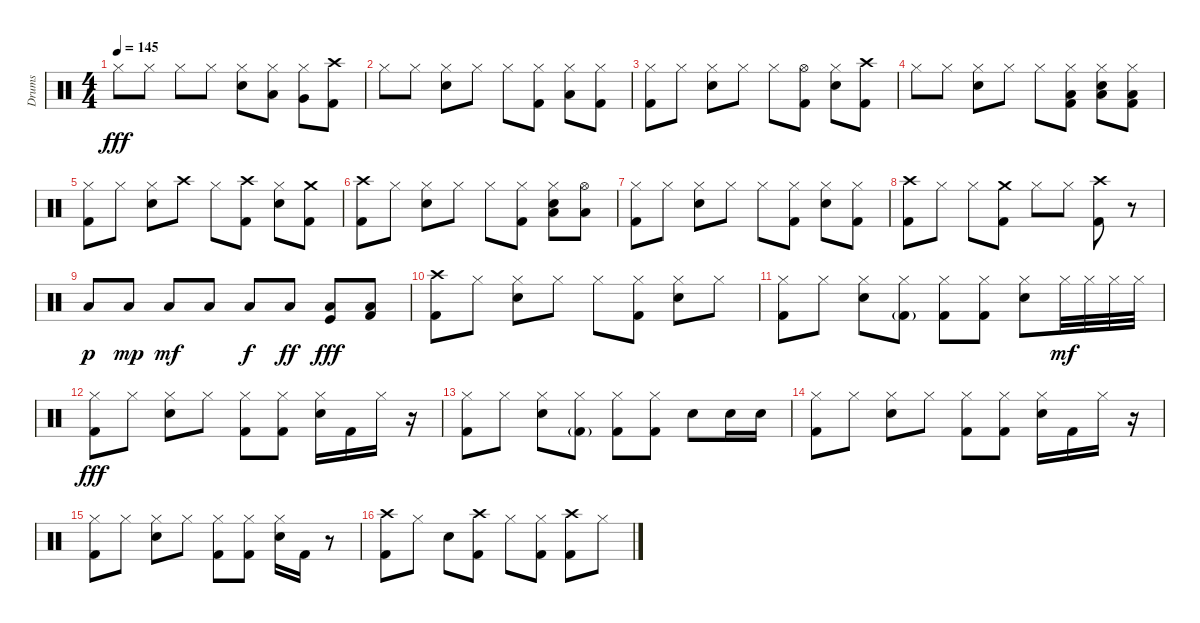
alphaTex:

\track ("Drums" "Drums") {instrument percussion}
\staff {score}
\articulation defaults
\ts (4 4)
\tempo 145
\clef neutral
\ks c "Hi-Hat (closed)".8{dy fff} "Hi-Hat (closed)".8 "Hi-Hat (closed)".8 "Hi-Hat (closed)".8
("Hi-Hat (closed)" "Snare (hit) 2").8 ("Hi-Hat (closed)" "Low Tom (hit)").8 ("Hi-Hat (closed)" "Very Low Tom (hit)").8 ("Crash high (hit)" "Kick (hit) 2").8 |
"Hi-Hat (closed)".8 "Hi-Hat (closed)".8 ("Hi-Hat (closed)" "Snare (hit) 2").8 "Hi-Hat (closed)".8 "Hi-Hat (closed)".8 ("Hi-Hat (closed)" "Kick (hit) 2").8 ("Hi-Hat (closed)" "Low Tom (hit)").8 ("Hi-Hat (closed)" "Kick (hit) 2").8 |
("Hi-Hat (closed)" "Kick (hit) 2").8 "Hi-Hat (closed)".8 ("Hi-Hat (closed)" "Snare (hit) 2").8 "Hi-Hat (closed)".8 "Hi-Hat (closed)".8 ("Hi-Hat (open)" "Kick (hit) 2").8 ("Hi-Hat (closed)" "Snare (hit) 2").8 ("Crash high (hit)" "Kick (hit) 2").8 |
"Hi-Hat (closed)".8 "Hi-Hat (closed)".8 ("Hi-Hat (closed)" "Snare (hit) 2").8 "Hi-Hat (closed)".8 "Hi-Hat (closed)".8 ("Hi-Hat (closed)" "Low Floor Tom (hit)" "Kick (hit) 2").8 ("Hi-Hat (closed)" "Snare (hit) 2" "Low Tom (hit)").8 ("Hi-Hat (closed)" "Low Floor Tom (hit)" "Kick (hit) 2").8 |
("Hi-Hat (closed)" "Kick (hit) 2").8 "Hi-Hat (closed)".8 ("Hi-Hat (closed)" "Snare (hit) 2").8 "Crash high (hit)".8 "Hi-Hat (closed)".8 ("Crash high (hit)" "Kick (hit) 2").8 ("Hi-Hat (closed)" "Snare (hit) 2").8 ("Crash medium (hit)" "Kick (hit) 2").8 |
("Crash high (hit)" "Kick (hit) 2").8 "Hi-Hat (closed)".8 ("Hi-Hat (closed)" "Snare (hit) 2").8 "Hi-Hat (closed)".8 "Hi-Hat (closed)".8 ("Hi-Hat (closed)" "Kick (hit) 2").8 ("Hi-Hat (closed)" "Snare (hit) 2" "Low Tom (hit)").8 ("Hi-Hat (open)" "Low Floor Tom (hit)").8 |
("Hi-Hat (closed)" "Kick (hit) 2").8 "Hi-Hat (closed)".8 ("Hi-Hat (closed)" "Snare (hit) 2").8 "Hi-Hat (closed)".8 "Hi-Hat (closed)".8 ("Hi-Hat (closed)" "Kick (hit) 2").8 ("Hi-Hat (closed)" "Snare (hit) 2").8 ("Hi-Hat (closed)" "Kick (hit) 2").8 |
("Crash high (hit)" "Kick (hit) 2").8 "Hi-Hat (closed)".8 "Hi-Hat (closed)".8 ("Crash medium (hit)" "Kick (hit) 2").8 "Hi-Hat (closed)".8 "Hi-Hat (closed)".8 ("Crash high (hit)" "Kick (hit) 2").8 r.8 |
"Low Floor Tom (hit)".8{dy p} "Low Floor Tom (hit)".8{dy mp} "Low Floor Tom (hit)".8{dy mf} "Low Floor Tom (hit)".8 "Low Floor Tom (hit)".8{dy f} "Low Floor Tom (hit)".8{dy ff} ("Low Floor Tom (hit)" "Kick (hit)").8{dy fff} ("Low Floor Tom (hit)" "Kick (hit) 2").8 |
("Crash high (hit)" "Kick (hit) 2").8 "Hi-Hat (closed)".8 ("Hi-Hat (closed)" "Snare (hit) 2").8 "Hi-Hat (closed)".8 "Hi-Hat (closed)".8 ("Hi-Hat (closed)" "Kick (hit) 2").8 ("Hi-Hat (closed)" "Snare (hit) 2").8 "Hi-Hat (closed)".8 |
("Hi-Hat (closed)" "Kick (hit) 2").8 "Hi-Hat (closed)".8 ("Hi-Hat (closed)" "Snare (hit) 2").8 ("Hi-Hat (closed)" "Kick (hit) 2"{g}).8 ("Hi-Hat (closed)" "Kick (hit) 2").8 ("Hi-Hat (closed)" "Kick (hit) 2").8 ("Hi-Hat (closed)" "Snare (hit) 2").8 "Hi-Hat (closed)".32{dy mf} "Hi-Hat (closed)".32 "Hi-Hat (closed)".32 "Hi-Hat (closed)".32 |
("Hi-Hat (closed)" "Kick (hit) 2").8{dy fff} "Hi-Hat (closed)".8 ("Hi-Hat (closed)" "Snare (hit) 2").8 "Hi-Hat (closed)".8 ("Hi-Hat (closed)" "Kick (hit) 2").8 ("Hi-Hat (closed)" "Kick (hit) 2").8 ("Hi-Hat (closed)" "Snare (hit) 2").16 "Kick (hit) 2".16 "Hi-Hat (closed)".16 r.16 |
("Hi-Hat (closed)" "Kick (hit) 2").8 "Hi-Hat (closed)".8 ("Hi-Hat (closed)" "Snare (hit) 2").8 ("Hi-Hat (closed)" "Kick (hit) 2"{g}).8 ("Hi-Hat (closed)" "Kick (hit) 2").8 ("Hi-Hat (closed)" "Kick (hit) 2").8 "Snare (hit) 2".8 "Snare (hit) 2".16 "Snare (hit) 2".16 |
("Hi-Hat (closed)" "Kick (hit) 2").8 "Hi-Hat (closed)".8 ("Hi-Hat (closed)" "Snare (hit) 2").8 "Hi-Hat (closed)".8 ("Hi-Hat (closed)" "Kick (hit) 2").8 ("Hi-Hat (closed)" "Kick (hit) 2").8 ("Hi-Hat (closed)" "Snare (hit) 2").16 "Kick (hit) 2".16 "Hi-Hat (closed)".16 r.16 |
("Hi-Hat (closed)" "Kick (hit) 2").8 "Hi-Hat (closed)".8 ("Hi-Hat (closed)" "Snare (hit) 2").8 "Hi-Hat (closed)".8 ("Hi-Hat (closed)" "Kick (hit) 2").8 ("Hi-Hat (closed)" "Kick (hit) 2").8 ("Hi-Hat (closed)" "Snare (hit) 2").16 "Kick (hit) 2".16 r.8 |
("Crash high (hit)" "Kick (hit) 2").8 "Hi-Hat (closed)".8 "Snare (hit) 2".8 ("Crash high (hit)" "Kick (hit) 2").8 "Hi-Hat (closed)".8 ("Hi-Hat (closed)" "Kick (hit) 2").8 ("Crash high (hit)" "Kick (hit) 2").8 "Hi-Hat (closed)".8
